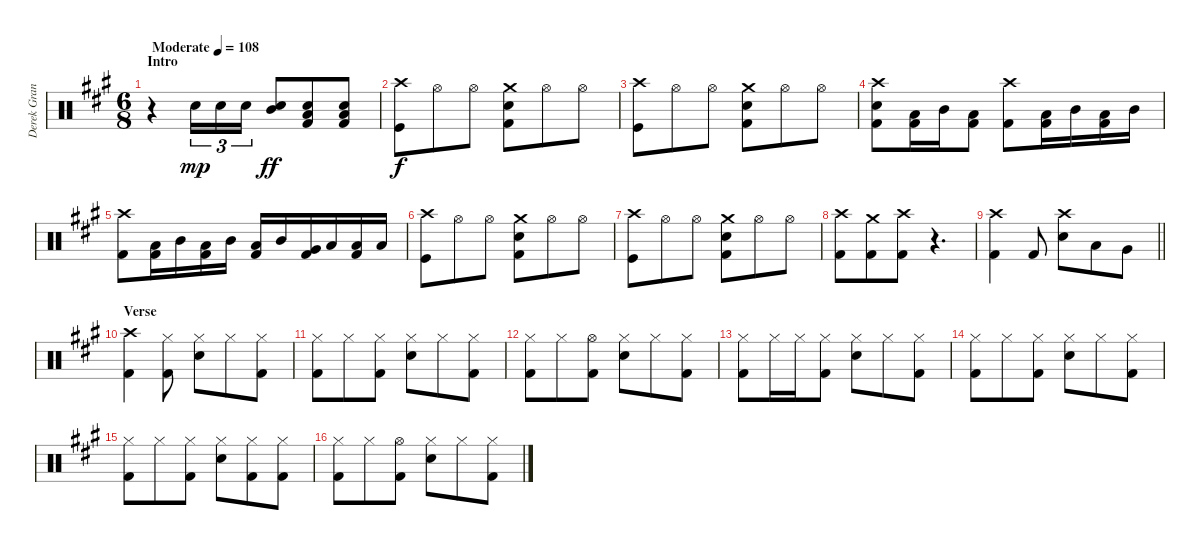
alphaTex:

\track ("Derek Grant - Drums" "Derek Gran") {instrument percussion}
\staff {score}
\articulation defaults
\ts (6 8)
\section ("" "Intro")
\tempo (108 "Moderate")
\clef neutral
\ks a
r.4{dy mp} "Snare (hit) 2".16{tu (3 2)} "Snare (hit) 2".16{tu (3 2)} "Snare (hit) 2".16{tu (3 2)} ("Snare (hit) 2" "Mid Tom (hit)").8{dy ff} ("Snare (hit) 2" "Low Tom (hit)" "Kick (hit) 2").8 ("Snare (hit) 2" "Low Floor Tom (hit)" "Kick (hit) 2").8 |
("Crash high (hit)" "Kick (hit)").8{dy f} "Hi-Hat (open)".8 "Hi-Hat (open)".8 ("Crash medium (hit)" "Snare (hit) 2" "Kick (hit) 2").8 "Hi-Hat (open)".8 "Hi-Hat (open)".8 |
("Crash high (hit)" "Kick (hit)").8 "Hi-Hat (open)".8 "Hi-Hat (open)".8 ("Crash medium (hit)" "Snare (hit) 2" "Kick (hit) 2").8 "Hi-Hat (open)".8 "Hi-Hat (open)".8 |
("Crash high (hit)" "Snare (hit) 2" "Kick (hit) 2").8 ("Low Tom (hit)" "Kick (hit) 2").16 "Mid Tom (hit)".16 ("Low Tom (hit)" "Kick (hit) 2").8 ("Crash high (hit)" "Kick (hit) 2").8 ("Low Tom (hit)" "Kick (hit) 2").16 "Mid Tom (hit)".16 ("Low Tom (hit)" "Kick (hit) 2").16 "Mid Tom (hit)".16 |
("Crash high (hit)" "Kick (hit) 2").8 ("Low Tom (hit)" "Kick (hit) 2").16 "Mid Tom (hit)".16 ("Low Tom (hit)" "Kick (hit) 2").16 "Mid Tom (hit)".16 ("Low Tom (hit)" "Kick (hit) 2").16 "Mid Tom (hit)".16 ("Very Low Tom (hit)" "Kick (hit) 2").16 "Low Tom (hit)".16 ("Low Floor Tom (hit)" "Kick (hit) 2").16 "Low Tom (hit)".16 |
("Crash high (hit)" "Kick (hit)").8 "Hi-Hat (open)".8 "Hi-Hat (open)".8 ("Crash medium (hit)" "Snare (hit) 2" "Kick (hit) 2").8 "Hi-Hat (open)".8 "Hi-Hat (open)".8 |
("Crash high (hit)" "Kick (hit)").8 "Hi-Hat (open)".8 "Hi-Hat (open)".8 ("Crash medium (hit)" "Snare (hit) 2" "Kick (hit) 2").8 "Hi-Hat (open)".8 "Hi-Hat (open)".8 |
("Crash high (hit)" "Kick (hit) 2").8 ("Crash medium (hit)" "Kick (hit) 2").8 ("Crash high (hit)" "Kick (hit) 2").8 r.4{d volume 0} |
\barLineRight lightlight
("Crash high (hit)" "Kick (hit) 2").4{volume 5} "Kick (hit) 2".8 ("Snare (hit) 2" "Crash high (hit)").8 "Low Tom (hit)".8 "Very Low Tom (hit)".8 |
\section ("" "Verse")
("Crash high (hit)" "Kick (hit) 2").4 ("Kick (hit) 2" "Hi-Hat (closed)").8 ("Snare (hit) 2" "Hi-Hat (closed)").8 "Hi-Hat (closed)".8 ("Hi-Hat (closed)" "Kick (hit) 2").8 |
("Kick (hit) 2" "Hi-Hat (closed)").8 "Hi-Hat (closed)".8 ("Kick (hit) 2" "Hi-Hat (closed)").8 ("Snare (hit) 2" "Hi-Hat (closed)").8 "Hi-Hat (closed)".8 ("Hi-Hat (closed)" "Kick (hit) 2").8 |
("Kick (hit) 2" "Hi-Hat (closed)").8 "Hi-Hat (closed)".8 ("Kick (hit) 2" "Hi-Hat (open)").8 ("Snare (hit) 2" "Hi-Hat (closed)").8 "Hi-Hat (closed)".8 ("Hi-Hat (closed)" "Kick (hit) 2").8 |
("Kick (hit) 2" "Hi-Hat (closed)").8 "Hi-Hat (closed)".16 "Hi-Hat (closed)".16 ("Kick (hit) 2" "Hi-Hat (closed)").8 ("Snare (hit) 2" "Hi-Hat (closed)").8 "Hi-Hat (closed)".8 ("Hi-Hat (closed)" "Kick (hit) 2").8 |
("Kick (hit) 2" "Hi-Hat (closed)").8 "Hi-Hat (closed)".8 ("Kick (hit) 2" "Hi-Hat (closed)").8 ("Snare (hit) 2" "Hi-Hat (closed)").8 "Hi-Hat (closed)".8 ("Hi-Hat (closed)" "Kick (hit) 2").8 |
("Kick (hit) 2" "Hi-Hat (closed)").8 "Hi-Hat (closed)".8 ("Kick (hit) 2" "Hi-Hat (closed)").8 ("Snare (hit) 2" "Hi-Hat (closed)").8 ("Hi-Hat (closed)" "Kick (hit) 2").8 ("Hi-Hat (closed)" "Kick (hit) 2").8 |
("Kick (hit) 2" "Hi-Hat (closed)").8 "Hi-Hat (closed)".8 ("Kick (hit) 2" "Hi-Hat (open)").8 ("Snare (hit) 2" "Hi-Hat (closed)").8 "Hi-Hat (closed)".8 ("Hi-Hat (closed)" "Kick (hit) 2").8
